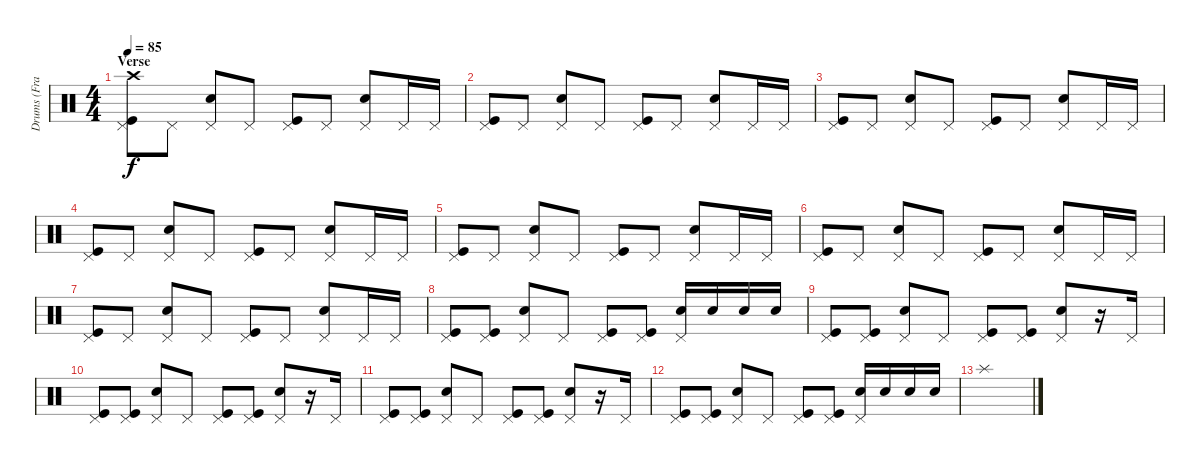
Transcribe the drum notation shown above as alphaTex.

\track ("Drums (Frank Ferrer)" "Drums (Fra") {instrument percussion}
\staff {score}
\articulation defaults
\ts (4 4)
\section ("" "Verse")
\tempo 85
\clef neutral
\ks c
("Kick (hit)" "Pedal Hi-Hat (hit)" "Crash high (hit)").8{dy f} "Pedal Hi-Hat (hit)".8 ("Snare (hit) 2" "Pedal Hi-Hat (hit)").8 "Pedal Hi-Hat (hit)".8 ("Kick (hit)" "Pedal Hi-Hat (hit)").8 "Pedal Hi-Hat (hit)".8 ("Snare (hit) 2" "Pedal Hi-Hat (hit)").8 "Pedal Hi-Hat (hit)".16 "Pedal Hi-Hat (hit)".16 |
("Kick (hit)" "Pedal Hi-Hat (hit)").8 "Pedal Hi-Hat (hit)".8 ("Snare (hit) 2" "Pedal Hi-Hat (hit)").8 "Pedal Hi-Hat (hit)".8 ("Kick (hit)" "Pedal Hi-Hat (hit)").8 "Pedal Hi-Hat (hit)".8 ("Snare (hit) 2" "Pedal Hi-Hat (hit)").8 "Pedal Hi-Hat (hit)".16 "Pedal Hi-Hat (hit)".16 |
("Kick (hit)" "Pedal Hi-Hat (hit)").8 "Pedal Hi-Hat (hit)".8 ("Snare (hit) 2" "Pedal Hi-Hat (hit)").8 "Pedal Hi-Hat (hit)".8 ("Kick (hit)" "Pedal Hi-Hat (hit)").8 "Pedal Hi-Hat (hit)".8 ("Snare (hit) 2" "Pedal Hi-Hat (hit)").8 "Pedal Hi-Hat (hit)".16 "Pedal Hi-Hat (hit)".16 |
("Kick (hit)" "Pedal Hi-Hat (hit)").8 "Pedal Hi-Hat (hit)".8 ("Snare (hit) 2" "Pedal Hi-Hat (hit)").8 "Pedal Hi-Hat (hit)".8 ("Kick (hit)" "Pedal Hi-Hat (hit)").8 "Pedal Hi-Hat (hit)".8 ("Snare (hit) 2" "Pedal Hi-Hat (hit)").8 "Pedal Hi-Hat (hit)".16 "Pedal Hi-Hat (hit)".16 |
("Kick (hit)" "Pedal Hi-Hat (hit)").8 "Pedal Hi-Hat (hit)".8 ("Snare (hit) 2" "Pedal Hi-Hat (hit)").8 "Pedal Hi-Hat (hit)".8 ("Kick (hit)" "Pedal Hi-Hat (hit)").8 "Pedal Hi-Hat (hit)".8 ("Snare (hit) 2" "Pedal Hi-Hat (hit)").8 "Pedal Hi-Hat (hit)".16 "Pedal Hi-Hat (hit)".16 |
("Kick (hit)" "Pedal Hi-Hat (hit)").8 "Pedal Hi-Hat (hit)".8 ("Snare (hit) 2" "Pedal Hi-Hat (hit)").8 "Pedal Hi-Hat (hit)".8 ("Kick (hit)" "Pedal Hi-Hat (hit)").8 "Pedal Hi-Hat (hit)".8 ("Snare (hit) 2" "Pedal Hi-Hat (hit)").8 "Pedal Hi-Hat (hit)".16 "Pedal Hi-Hat (hit)".16 |
("Kick (hit)" "Pedal Hi-Hat (hit)").8 "Pedal Hi-Hat (hit)".8 ("Snare (hit) 2" "Pedal Hi-Hat (hit)").8 "Pedal Hi-Hat (hit)".8 ("Kick (hit)" "Pedal Hi-Hat (hit)").8 "Pedal Hi-Hat (hit)".8 ("Snare (hit) 2" "Pedal Hi-Hat (hit)").8 "Pedal Hi-Hat (hit)".16 "Pedal Hi-Hat (hit)".16 |
("Kick (hit)" "Pedal Hi-Hat (hit)").8 ("Kick (hit)" "Pedal Hi-Hat (hit)").8 ("Snare (hit) 2" "Pedal Hi-Hat (hit)").8 "Pedal Hi-Hat (hit)".8 ("Kick (hit)" "Pedal Hi-Hat (hit)").8 ("Kick (hit)" "Pedal Hi-Hat (hit)").8 ("Snare (hit) 2" "Pedal Hi-Hat (hit)").16 "Snare (hit) 2".16 "Snare (hit) 2".16 "Snare (hit) 2".16 |
("Kick (hit)" "Pedal Hi-Hat (hit)").8 ("Kick (hit)" "Pedal Hi-Hat (hit)").8 ("Snare (hit) 2" "Pedal Hi-Hat (hit)").8 "Pedal Hi-Hat (hit)".8 ("Kick (hit)" "Pedal Hi-Hat (hit)").8 ("Kick (hit)" "Pedal Hi-Hat (hit)").8 ("Snare (hit) 2" "Pedal Hi-Hat (hit)").8 r.16 "Pedal Hi-Hat (hit)".16 |
("Kick (hit)" "Pedal Hi-Hat (hit)").8 ("Kick (hit)" "Pedal Hi-Hat (hit)").8 ("Snare (hit) 2" "Pedal Hi-Hat (hit)").8 "Pedal Hi-Hat (hit)".8 ("Kick (hit)" "Pedal Hi-Hat (hit)").8 ("Kick (hit)" "Pedal Hi-Hat (hit)").8 ("Snare (hit) 2" "Pedal Hi-Hat (hit)").8 r.16 "Pedal Hi-Hat (hit)".16 |
("Kick (hit)" "Pedal Hi-Hat (hit)").8 ("Kick (hit)" "Pedal Hi-Hat (hit)").8 ("Snare (hit) 2" "Pedal Hi-Hat (hit)").8 "Pedal Hi-Hat (hit)".8 ("Kick (hit)" "Pedal Hi-Hat (hit)").8 ("Kick (hit)" "Pedal Hi-Hat (hit)").8 ("Snare (hit) 2" "Pedal Hi-Hat (hit)").8 r.16 "Pedal Hi-Hat (hit)".16 |
("Kick (hit)" "Pedal Hi-Hat (hit)").8 ("Kick (hit)" "Pedal Hi-Hat (hit)").8 ("Snare (hit) 2" "Pedal Hi-Hat (hit)").8 "Pedal Hi-Hat (hit)".8 ("Kick (hit)" "Pedal Hi-Hat (hit)").8 ("Kick (hit)" "Pedal Hi-Hat (hit)").8 ("Snare (hit) 2" "Pedal Hi-Hat (hit)").16 "Snare (hit) 2".16 "Snare (hit) 2".16 "Snare (hit) 2".16 |
"Splash (hit)".1
